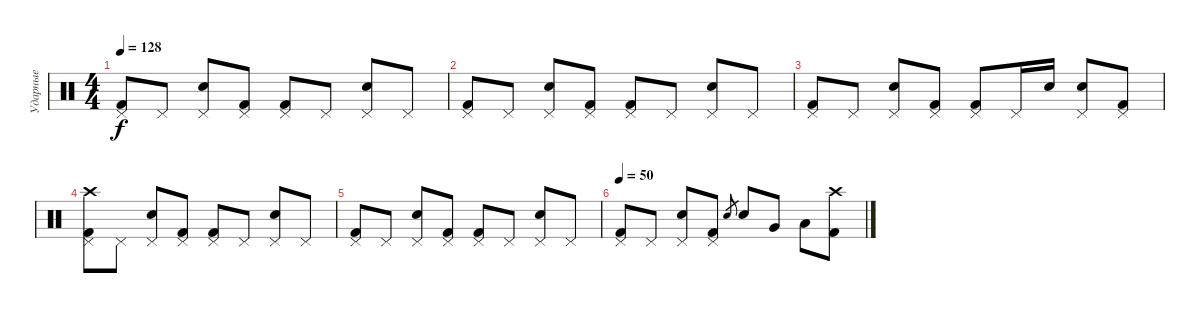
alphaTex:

\track ("Ударные" "Ударные") {instrument percussion}
\staff {score}
\articulation defaults
\ts (4 4)
\tempo 128
\clef neutral
\ks c
("Kick (hit) 2" "Pedal Hi-Hat (hit)").8{dy f} "Pedal Hi-Hat (hit)".8 ("Pedal Hi-Hat (hit)" "Electric Snare (hit)").8 ("Kick (hit) 2" "Pedal Hi-Hat (hit)").8 ("Kick (hit) 2" "Pedal Hi-Hat (hit)").8 "Pedal Hi-Hat (hit)".8 ("Pedal Hi-Hat (hit)" "Electric Snare (hit)").8 "Pedal Hi-Hat (hit)".8 |
("Kick (hit) 2" "Pedal Hi-Hat (hit)").8 "Pedal Hi-Hat (hit)".8 ("Pedal Hi-Hat (hit)" "Electric Snare (hit)").8 ("Kick (hit) 2" "Pedal Hi-Hat (hit)").8 ("Kick (hit) 2" "Pedal Hi-Hat (hit)").8 "Pedal Hi-Hat (hit)".8 ("Pedal Hi-Hat (hit)" "Electric Snare (hit)").8 "Pedal Hi-Hat (hit)".8 |
("Kick (hit) 2" "Pedal Hi-Hat (hit)").8 "Pedal Hi-Hat (hit)".8 ("Pedal Hi-Hat (hit)" "Electric Snare (hit)").8 ("Kick (hit) 2" "Pedal Hi-Hat (hit)").8 ("Kick (hit) 2" "Pedal Hi-Hat (hit)").8 "Pedal Hi-Hat (hit)".16 "Electric Snare (hit)".16 ("Pedal Hi-Hat (hit)" "Electric Snare (hit)").8 ("Kick (hit) 2" "Pedal Hi-Hat (hit)").8 |
("Kick (hit) 2" "Pedal Hi-Hat (hit)" "Crash high (hit)").8 "Pedal Hi-Hat (hit)".8 ("Pedal Hi-Hat (hit)" "Electric Snare (hit)").8 ("Kick (hit) 2" "Pedal Hi-Hat (hit)").8 ("Kick (hit) 2" "Pedal Hi-Hat (hit)").8 "Pedal Hi-Hat (hit)".8 ("Pedal Hi-Hat (hit)" "Electric Snare (hit)").8 "Pedal Hi-Hat (hit)".8 |
("Kick (hit) 2" "Pedal Hi-Hat (hit)").8 "Pedal Hi-Hat (hit)".8 ("Pedal Hi-Hat (hit)" "Electric Snare (hit)").8 ("Kick (hit) 2" "Pedal Hi-Hat (hit)").8 ("Kick (hit) 2" "Pedal Hi-Hat (hit)").8 "Pedal Hi-Hat (hit)".8 ("Pedal Hi-Hat (hit)" "Electric Snare (hit)").8 "Pedal Hi-Hat (hit)".8 |
\tempo 50
("Kick (hit) 2" "Pedal Hi-Hat (hit)").8 "Pedal Hi-Hat (hit)".8 ("Pedal Hi-Hat (hit)" "Electric Snare (hit)").8 ("Kick (hit) 2" "Pedal Hi-Hat (hit)").8 "Electric Snare (hit)".8{gr} "Electric Snare (hit)".8 "Very Low Tom (hit)".8 "Low Floor Tom (hit)".8 ("Kick (hit) 2" "Crash high (hit)").8
